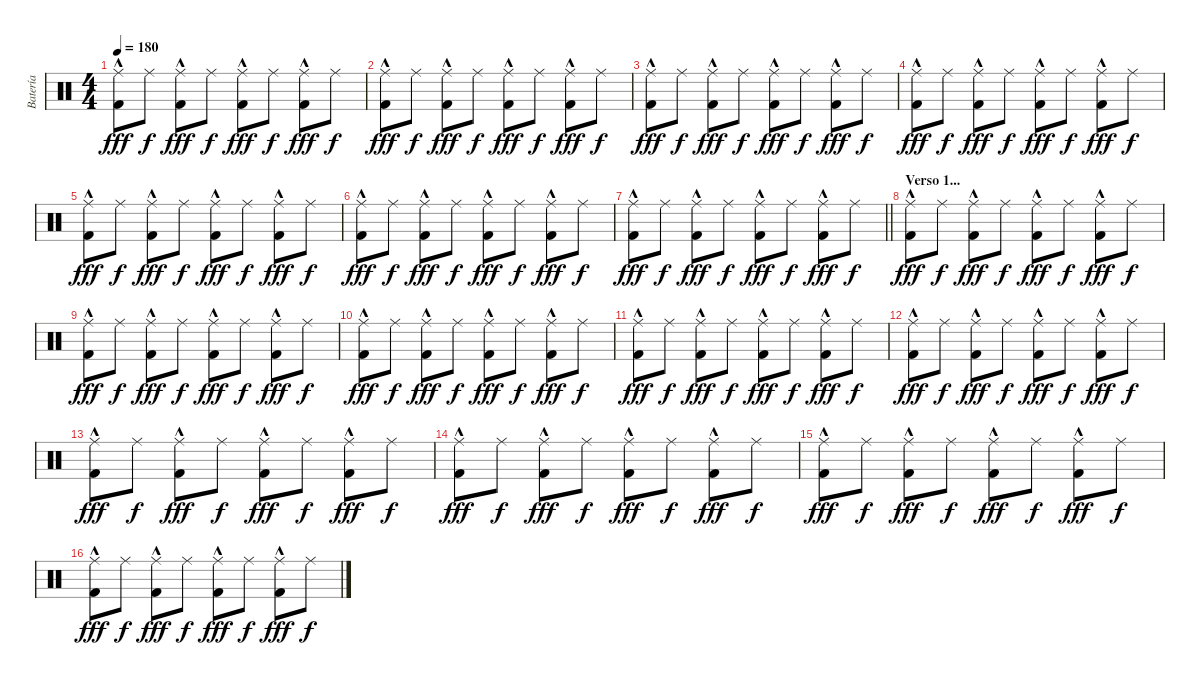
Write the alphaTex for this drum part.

\track ("Batería" "Batería") {instrument percussion}
\staff {score}
\articulation defaults
\ts (4 4)
\tempo 180
\clef neutral
\ks c
("Ride (middle)" "Kick (hit) 2"{hac}).8{dy fff} "Ride (middle)".8{dy f} ("Ride (middle)" "Kick (hit) 2"{hac}).8{dy fff} "Ride (middle)".8{dy f} ("Ride (middle)" "Kick (hit) 2"{hac}).8{dy fff} "Ride (middle)".8{dy f} ("Ride (middle)" "Kick (hit) 2"{hac}).8{dy fff} "Ride (middle)".8{dy f} |
("Ride (middle)" "Kick (hit) 2"{hac}).8{dy fff} "Ride (middle)".8{dy f} ("Ride (middle)" "Kick (hit) 2"{hac}).8{dy fff} "Ride (middle)".8{dy f} ("Ride (middle)" "Kick (hit) 2"{hac}).8{dy fff} "Ride (middle)".8{dy f} ("Ride (middle)" "Kick (hit) 2"{hac}).8{dy fff} "Ride (middle)".8{dy f} |
("Ride (middle)" "Kick (hit) 2"{hac}).8{dy fff} "Ride (middle)".8{dy f} ("Ride (middle)" "Kick (hit) 2"{hac}).8{dy fff} "Ride (middle)".8{dy f} ("Ride (middle)" "Kick (hit) 2"{hac}).8{dy fff} "Ride (middle)".8{dy f} ("Ride (middle)" "Kick (hit) 2"{hac}).8{dy fff} "Ride (middle)".8{dy f} |
("Ride (middle)" "Kick (hit) 2"{hac}).8{dy fff} "Ride (middle)".8{dy f} ("Ride (middle)" "Kick (hit) 2"{hac}).8{dy fff} "Ride (middle)".8{dy f} ("Ride (middle)" "Kick (hit) 2"{hac}).8{dy fff} "Ride (middle)".8{dy f} ("Ride (middle)" "Kick (hit) 2"{hac}).8{dy fff} "Ride (middle)".8{dy f} |
("Ride (middle)" "Kick (hit) 2"{hac}).8{dy fff} "Ride (middle)".8{dy f} ("Ride (middle)" "Kick (hit) 2"{hac}).8{dy fff} "Ride (middle)".8{dy f} ("Ride (middle)" "Kick (hit) 2"{hac}).8{dy fff} "Ride (middle)".8{dy f} ("Ride (middle)" "Kick (hit) 2"{hac}).8{dy fff} "Ride (middle)".8{dy f} |
("Ride (middle)" "Kick (hit) 2"{hac}).8{dy fff} "Ride (middle)".8{dy f} ("Ride (middle)" "Kick (hit) 2"{hac}).8{dy fff} "Ride (middle)".8{dy f} ("Ride (middle)" "Kick (hit) 2"{hac}).8{dy fff} "Ride (middle)".8{dy f} ("Ride (middle)" "Kick (hit) 2"{hac}).8{dy fff} "Ride (middle)".8{dy f} |
\barLineRight lightlight
("Ride (middle)" "Kick (hit) 2"{hac}).8{dy fff} "Ride (middle)".8{dy f} ("Ride (middle)" "Kick (hit) 2"{hac}).8{dy fff} "Ride (middle)".8{dy f} ("Ride (middle)" "Kick (hit) 2"{hac}).8{dy fff} "Ride (middle)".8{dy f} ("Ride (middle)" "Kick (hit) 2"{hac}).8{dy fff} "Ride (middle)".8{dy f} |
\section ("" "Verso 1...")
("Ride (middle)" "Kick (hit) 2"{hac}).8{dy fff} "Ride (middle)".8{dy f} ("Ride (middle)" "Kick (hit) 2"{hac}).8{dy fff} "Ride (middle)".8{dy f} ("Ride (middle)" "Kick (hit) 2"{hac}).8{dy fff} "Ride (middle)".8{dy f} ("Ride (middle)" "Kick (hit) 2"{hac}).8{dy fff} "Ride (middle)".8{dy f} |
("Ride (middle)" "Kick (hit) 2"{hac}).8{dy fff} "Ride (middle)".8{dy f} ("Ride (middle)" "Kick (hit) 2"{hac}).8{dy fff} "Ride (middle)".8{dy f} ("Ride (middle)" "Kick (hit) 2"{hac}).8{dy fff} "Ride (middle)".8{dy f} ("Ride (middle)" "Kick (hit) 2"{hac}).8{dy fff} "Ride (middle)".8{dy f} |
("Ride (middle)" "Kick (hit) 2"{hac}).8{dy fff} "Ride (middle)".8{dy f} ("Ride (middle)" "Kick (hit) 2"{hac}).8{dy fff} "Ride (middle)".8{dy f} ("Ride (middle)" "Kick (hit) 2"{hac}).8{dy fff} "Ride (middle)".8{dy f} ("Ride (middle)" "Kick (hit) 2"{hac}).8{dy fff} "Ride (middle)".8{dy f} |
("Ride (middle)" "Kick (hit) 2"{hac}).8{dy fff} "Ride (middle)".8{dy f} ("Ride (middle)" "Kick (hit) 2"{hac}).8{dy fff} "Ride (middle)".8{dy f} ("Ride (middle)" "Kick (hit) 2"{hac}).8{dy fff} "Ride (middle)".8{dy f} ("Ride (middle)" "Kick (hit) 2"{hac}).8{dy fff} "Ride (middle)".8{dy f} |
("Ride (middle)" "Kick (hit) 2"{hac}).8{dy fff} "Ride (middle)".8{dy f} ("Ride (middle)" "Kick (hit) 2"{hac}).8{dy fff} "Ride (middle)".8{dy f} ("Ride (middle)" "Kick (hit) 2"{hac}).8{dy fff} "Ride (middle)".8{dy f} ("Ride (middle)" "Kick (hit) 2"{hac}).8{dy fff} "Ride (middle)".8{dy f} |
("Ride (middle)" "Kick (hit) 2"{hac}).8{dy fff} "Ride (middle)".8{dy f} ("Ride (middle)" "Kick (hit) 2"{hac}).8{dy fff} "Ride (middle)".8{dy f} ("Ride (middle)" "Kick (hit) 2"{hac}).8{dy fff} "Ride (middle)".8{dy f} ("Ride (middle)" "Kick (hit) 2"{hac}).8{dy fff} "Ride (middle)".8{dy f} |
("Ride (middle)" "Kick (hit) 2"{hac}).8{dy fff} "Ride (middle)".8{dy f} ("Ride (middle)" "Kick (hit) 2"{hac}).8{dy fff} "Ride (middle)".8{dy f} ("Ride (middle)" "Kick (hit) 2"{hac}).8{dy fff} "Ride (middle)".8{dy f} ("Ride (middle)" "Kick (hit) 2"{hac}).8{dy fff} "Ride (middle)".8{dy f} |
("Ride (middle)" "Kick (hit) 2"{hac}).8{dy fff} "Ride (middle)".8{dy f} ("Ride (middle)" "Kick (hit) 2"{hac}).8{dy fff} "Ride (middle)".8{dy f} ("Ride (middle)" "Kick (hit) 2"{hac}).8{dy fff} "Ride (middle)".8{dy f} ("Ride (middle)" "Kick (hit) 2"{hac}).8{dy fff} "Ride (middle)".8{dy f} |
("Ride (middle)" "Kick (hit) 2"{hac}).8{dy fff} "Ride (middle)".8{dy f} ("Ride (middle)" "Kick (hit) 2"{hac}).8{dy fff} "Ride (middle)".8{dy f} ("Ride (middle)" "Kick (hit) 2"{hac}).8{dy fff} "Ride (middle)".8{dy f} ("Ride (middle)" "Kick (hit) 2"{hac}).8{dy fff} "Ride (middle)".8{dy f}
